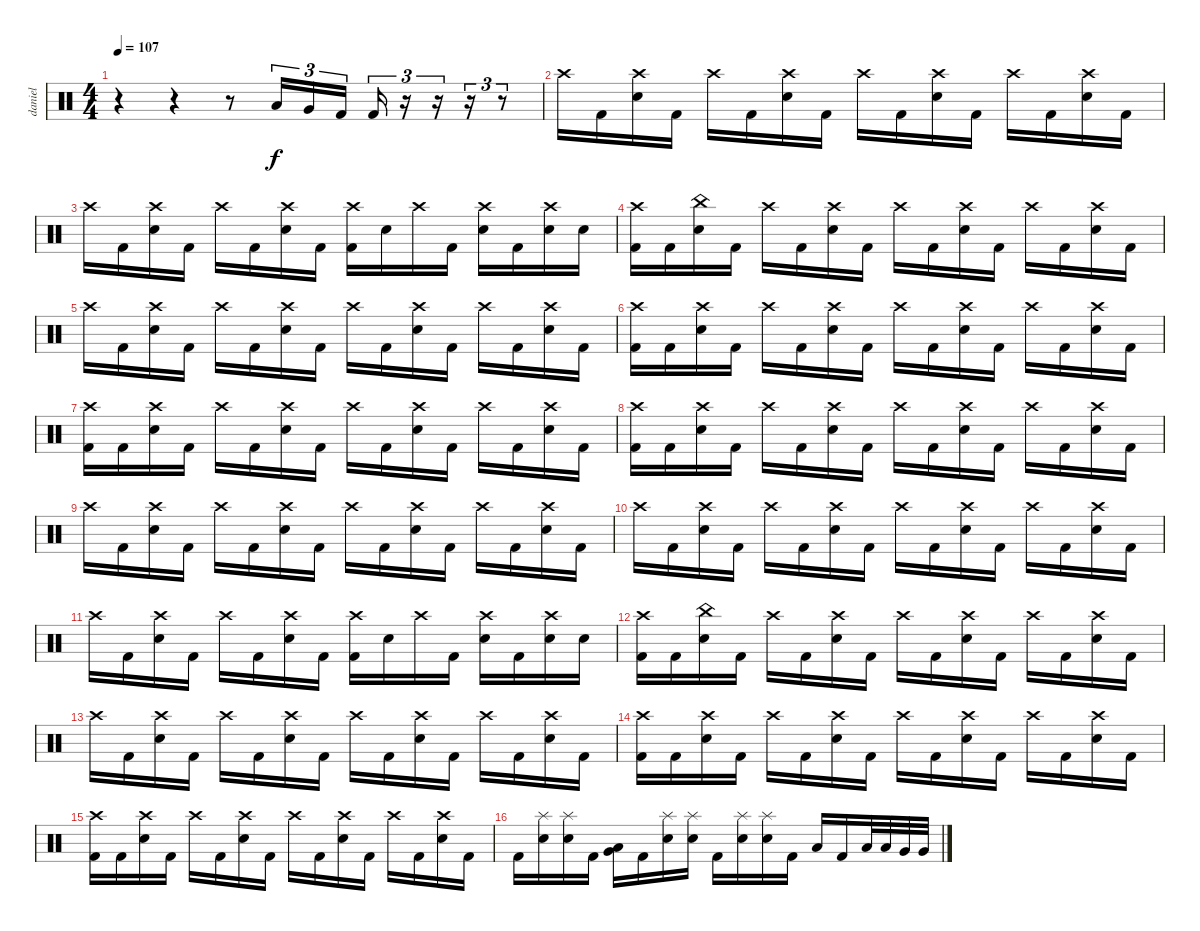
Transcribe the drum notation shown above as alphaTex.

\track ("daniel" "daniel") {instrument percussion}
\staff {score}
\articulation defaults
\ts (4 4)
\tempo 107
\clef neutral
\ks c
r.4{dy f} r.4 r.8 "Low Tom (hit)".16{tu (3 2)} "Very Low Tom (hit)".16{tu (3 2)} "Kick (hit) 2".16{tu (3 2)} "Kick (hit) 2".16{tu (3 2)} r.16{tu (3 2)} r.16{tu (3 2)} r.16{tu (3 2)} r.8{tu (3 2)} |
"Crash high (hit)".16 "Kick (hit) 2".16 ("Crash high (hit)" "Electric Snare (hit)").16 "Kick (hit) 2".16 "Crash high (hit)".16 "Kick (hit) 2".16 ("Crash high (hit)" "Electric Snare (hit)").16 "Kick (hit) 2".16 "Crash high (hit)".16 "Kick (hit) 2".16 ("Crash high (hit)" "Electric Snare (hit)").16 "Kick (hit) 2".16 "Crash high (hit)".16 "Kick (hit) 2".16 ("Crash high (hit)" "Electric Snare (hit)").16 "Kick (hit) 2".16 |
"Crash high (hit)".16 "Kick (hit) 2".16 ("Crash high (hit)" "Electric Snare (hit)").16 "Kick (hit) 2".16 "Crash high (hit)".16 "Kick (hit) 2".16 ("Crash high (hit)" "Electric Snare (hit)").16 "Kick (hit) 2".16 ("Crash high (hit)" "Kick (hit) 2").16 "Electric Snare (hit)".16 "Crash high (hit)".16 "Kick (hit) 2".16 ("Crash high (hit)" "Electric Snare (hit)").16 "Kick (hit) 2".16 ("Crash high (hit)" "Electric Snare (hit)").16 "Electric Snare (hit)".16 |
("Crash high (hit)" "Kick (hit) 2").16 "Kick (hit) 2".16 ("China (hit)" "Electric Snare (hit)").16 "Kick (hit) 2".16 "Crash high (hit)".16 "Kick (hit) 2".16 ("Crash high (hit)" "Electric Snare (hit)").16 "Kick (hit) 2".16 "Crash high (hit)".16 "Kick (hit) 2".16 ("Crash high (hit)" "Electric Snare (hit)").16 "Kick (hit) 2".16 "Crash high (hit)".16 "Kick (hit) 2".16 ("Crash high (hit)" "Electric Snare (hit)").16 "Kick (hit) 2".16 |
"Crash high (hit)".16 "Kick (hit) 2".16 ("Crash high (hit)" "Electric Snare (hit)").16 "Kick (hit) 2".16 "Crash high (hit)".16 "Kick (hit) 2".16 ("Crash high (hit)" "Electric Snare (hit)").16 "Kick (hit) 2".16 "Crash high (hit)".16 "Kick (hit) 2".16 ("Crash high (hit)" "Electric Snare (hit)").16 "Kick (hit) 2".16 "Crash high (hit)".16 "Kick (hit) 2".16 ("Crash high (hit)" "Electric Snare (hit)").16 "Kick (hit) 2".16 |
("Crash high (hit)" "Kick (hit) 2").16 "Kick (hit) 2".16 ("Crash high (hit)" "Electric Snare (hit)").16 "Kick (hit) 2".16 "Crash high (hit)".16 "Kick (hit) 2".16 ("Crash high (hit)" "Electric Snare (hit)").16 "Kick (hit) 2".16 "Crash high (hit)".16 "Kick (hit) 2".16 ("Crash high (hit)" "Electric Snare (hit)").16 "Kick (hit) 2".16 "Crash high (hit)".16 "Kick (hit) 2".16 ("Crash high (hit)" "Electric Snare (hit)").16 "Kick (hit) 2".16 |
("Crash high (hit)" "Kick (hit) 2").16 "Kick (hit) 2".16 ("Crash high (hit)" "Electric Snare (hit)").16 "Kick (hit) 2".16 "Crash high (hit)".16 "Kick (hit) 2".16 ("Crash high (hit)" "Electric Snare (hit)").16 "Kick (hit) 2".16 "Crash high (hit)".16 "Kick (hit) 2".16 ("Crash high (hit)" "Electric Snare (hit)").16 "Kick (hit) 2".16 "Crash high (hit)".16 "Kick (hit) 2".16 ("Crash high (hit)" "Electric Snare (hit)").16 "Kick (hit) 2".16 |
("Crash high (hit)" "Kick (hit) 2").16 "Kick (hit) 2".16 ("Crash high (hit)" "Electric Snare (hit)").16 "Kick (hit) 2".16 "Crash high (hit)".16 "Kick (hit) 2".16 ("Crash high (hit)" "Electric Snare (hit)").16 "Kick (hit) 2".16 "Crash high (hit)".16 "Kick (hit) 2".16 ("Crash high (hit)" "Electric Snare (hit)").16 "Kick (hit) 2".16 "Crash high (hit)".16 "Kick (hit) 2".16 ("Crash high (hit)" "Electric Snare (hit)").16 "Kick (hit) 2".16 |
"Crash high (hit)".16 "Kick (hit) 2".16 ("Crash high (hit)" "Electric Snare (hit)").16 "Kick (hit) 2".16 "Crash high (hit)".16 "Kick (hit) 2".16 ("Crash high (hit)" "Electric Snare (hit)").16 "Kick (hit) 2".16 "Crash high (hit)".16 "Kick (hit) 2".16 ("Crash high (hit)" "Electric Snare (hit)").16 "Kick (hit) 2".16 "Crash high (hit)".16 "Kick (hit) 2".16 ("Crash high (hit)" "Electric Snare (hit)").16 "Kick (hit) 2".16 |
"Crash high (hit)".16 "Kick (hit) 2".16 ("Crash high (hit)" "Electric Snare (hit)").16 "Kick (hit) 2".16 "Crash high (hit)".16 "Kick (hit) 2".16 ("Crash high (hit)" "Electric Snare (hit)").16 "Kick (hit) 2".16 "Crash high (hit)".16 "Kick (hit) 2".16 ("Crash high (hit)" "Electric Snare (hit)").16 "Kick (hit) 2".16 "Crash high (hit)".16 "Kick (hit) 2".16 ("Crash high (hit)" "Electric Snare (hit)").16 "Kick (hit) 2".16 |
"Crash high (hit)".16 "Kick (hit) 2".16 ("Crash high (hit)" "Electric Snare (hit)").16 "Kick (hit) 2".16 "Crash high (hit)".16 "Kick (hit) 2".16 ("Crash high (hit)" "Electric Snare (hit)").16 "Kick (hit) 2".16 ("Crash high (hit)" "Kick (hit) 2").16 "Electric Snare (hit)".16 "Crash high (hit)".16 "Kick (hit) 2".16 ("Crash high (hit)" "Electric Snare (hit)").16 "Kick (hit) 2".16 ("Crash high (hit)" "Electric Snare (hit)").16 "Electric Snare (hit)".16 |
("Crash high (hit)" "Kick (hit) 2").16 "Kick (hit) 2".16 ("China (hit)" "Electric Snare (hit)").16 "Kick (hit) 2".16 "Crash high (hit)".16 "Kick (hit) 2".16 ("Crash high (hit)" "Electric Snare (hit)").16 "Kick (hit) 2".16 "Crash high (hit)".16 "Kick (hit) 2".16 ("Crash high (hit)" "Electric Snare (hit)").16 "Kick (hit) 2".16 "Crash high (hit)".16 "Kick (hit) 2".16 ("Crash high (hit)" "Electric Snare (hit)").16 "Kick (hit) 2".16 |
"Crash high (hit)".16 "Kick (hit) 2".16 ("Crash high (hit)" "Electric Snare (hit)").16 "Kick (hit) 2".16 "Crash high (hit)".16 "Kick (hit) 2".16 ("Crash high (hit)" "Electric Snare (hit)").16 "Kick (hit) 2".16 "Crash high (hit)".16 "Kick (hit) 2".16 ("Crash high (hit)" "Electric Snare (hit)").16 "Kick (hit) 2".16 "Crash high (hit)".16 "Kick (hit) 2".16 ("Crash high (hit)" "Electric Snare (hit)").16 "Kick (hit) 2".16 |
("Crash high (hit)" "Kick (hit) 2").16 "Kick (hit) 2".16 ("Crash high (hit)" "Electric Snare (hit)").16 "Kick (hit) 2".16 "Crash high (hit)".16 "Kick (hit) 2".16 ("Crash high (hit)" "Electric Snare (hit)").16 "Kick (hit) 2".16 "Crash high (hit)".16 "Kick (hit) 2".16 ("Crash high (hit)" "Electric Snare (hit)").16 "Kick (hit) 2".16 "Crash high (hit)".16 "Kick (hit) 2".16 ("Crash high (hit)" "Electric Snare (hit)").16 "Kick (hit) 2".16 |
("Crash high (hit)" "Kick (hit) 2").16 "Kick (hit) 2".16 ("Crash high (hit)" "Electric Snare (hit)").16 "Kick (hit) 2".16 "Crash high (hit)".16 "Kick (hit) 2".16 ("Crash high (hit)" "Electric Snare (hit)").16 "Kick (hit) 2".16 "Crash high (hit)".16 "Kick (hit) 2".16 ("Crash high (hit)" "Electric Snare (hit)").16 "Kick (hit) 2".16 "Crash high (hit)".16 "Kick (hit) 2".16 ("Crash high (hit)" "Electric Snare (hit)").16 "Kick (hit) 2".16 |
"Kick (hit) 2".16 ("Splash (hit)" "Electric Snare (hit)").16 ("Splash (hit)" "Electric Snare (hit)").16 "Kick (hit) 2".16 ("Very Low Tom (hit)" "Low Tom (hit)").16{bd 120} "Kick (hit) 2".16 ("Splash (hit)" "Electric Snare (hit)").16 ("Splash (hit)" "Electric Snare (hit)").16 "Kick (hit) 2".16 ("Splash (hit)" "Electric Snare (hit)").16 ("Splash (hit)" "Electric Snare (hit)").16 "Kick (hit) 2".16 "Low Tom (hit)".16 "Kick (hit) 2".16 "Low Tom (hit)".32 "Low Tom (hit)".32 "Very Low Tom (hit)".32 "Very Low Tom (hit)".32
